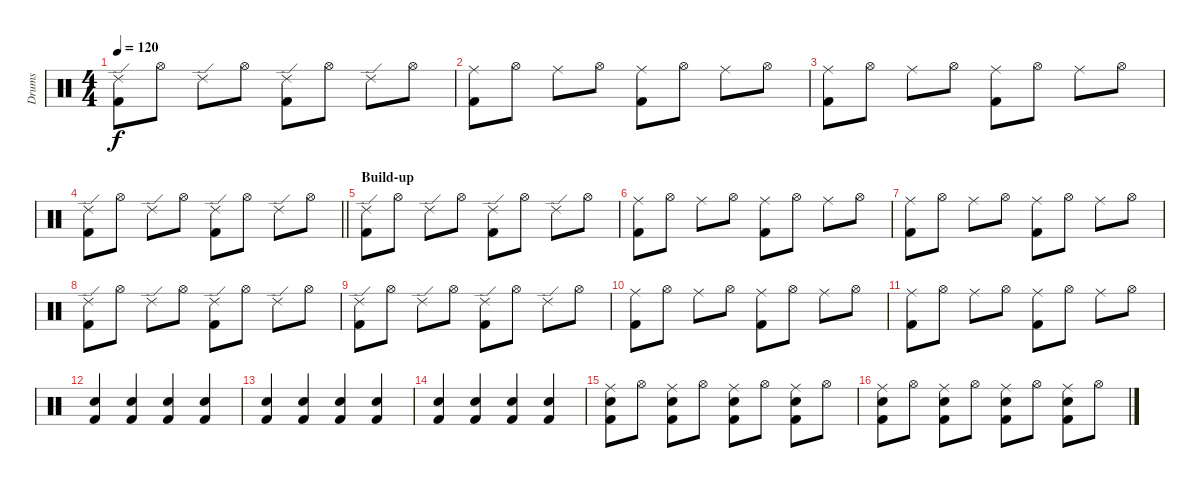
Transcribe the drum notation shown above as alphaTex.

\track ("Drums" "Drums") {instrument percussion}
\staff {score}
\articulation defaults
\ts (4 4)
\tempo 120
\clef neutral
\ks c
("Ride (edge) 2" "Kick (hit) 2").8{dy f} "Hi-Hat (open)".8 "Ride (edge) 2".8 "Hi-Hat (open)".8 ("Ride (edge) 2" "Kick (hit) 2").8 "Hi-Hat (open)".8 "Ride (edge) 2".8 "Hi-Hat (open)".8 |
("Ride (middle)" "Kick (hit) 2").8 "Hi-Hat (open)".8 "Ride (middle)".8 "Hi-Hat (open)".8 ("Ride (middle)" "Kick (hit) 2").8 "Hi-Hat (open)".8 "Ride (middle)".8 "Hi-Hat (open)".8 |
("Ride (middle)" "Kick (hit) 2").8 "Hi-Hat (open)".8 "Ride (middle)".8 "Hi-Hat (open)".8 ("Ride (middle)" "Kick (hit) 2").8 "Hi-Hat (open)".8 "Ride (middle)".8 "Hi-Hat (open)".8 |
\barLineRight lightlight
("Ride (edge) 2" "Kick (hit) 2").8 "Hi-Hat (open)".8 "Ride (edge) 2".8 "Hi-Hat (open)".8 ("Ride (edge) 2" "Kick (hit) 2").8 "Hi-Hat (open)".8 "Ride (edge) 2".8 "Hi-Hat (open)".8 |
\section ("" "Build-up")
("Ride (edge) 2" "Kick (hit) 2").8 "Hi-Hat (open)".8 "Ride (edge) 2".8 "Hi-Hat (open)".8 ("Ride (edge) 2" "Kick (hit) 2").8 "Hi-Hat (open)".8 "Ride (edge) 2".8 "Hi-Hat (open)".8 |
("Ride (middle)" "Kick (hit) 2").8 "Hi-Hat (open)".8 "Ride (middle)".8 "Hi-Hat (open)".8 ("Ride (middle)" "Kick (hit) 2").8 "Hi-Hat (open)".8 "Ride (middle)".8 "Hi-Hat (open)".8 |
("Ride (middle)" "Kick (hit) 2").8 "Hi-Hat (open)".8 "Ride (middle)".8 "Hi-Hat (open)".8 ("Ride (middle)" "Kick (hit) 2").8 "Hi-Hat (open)".8 "Ride (middle)".8 "Hi-Hat (open)".8 |
("Ride (edge) 2" "Kick (hit) 2").8 "Hi-Hat (open)".8 "Ride (edge) 2".8 "Hi-Hat (open)".8 ("Ride (edge) 2" "Kick (hit) 2").8 "Hi-Hat (open)".8 "Ride (edge) 2".8 "Hi-Hat (open)".8 |
("Ride (edge) 2" "Kick (hit) 2").8 "Hi-Hat (open)".8 "Ride (edge) 2".8 "Hi-Hat (open)".8 ("Ride (edge) 2" "Kick (hit) 2").8 "Hi-Hat (open)".8 "Ride (edge) 2".8 "Hi-Hat (open)".8 |
("Ride (middle)" "Kick (hit) 2").8 "Hi-Hat (open)".8 "Ride (middle)".8 "Hi-Hat (open)".8 ("Ride (middle)" "Kick (hit) 2").8 "Hi-Hat (open)".8 "Ride (middle)".8 "Hi-Hat (open)".8 |
("Ride (middle)" "Kick (hit) 2").8 "Hi-Hat (open)".8 "Ride (middle)".8 "Hi-Hat (open)".8 ("Ride (middle)" "Kick (hit) 2").8 "Hi-Hat (open)".8 "Ride (middle)".8 "Hi-Hat (open)".8 |
("Electric Snare (hit)" "Kick (hit) 2").4 ("Electric Snare (hit)" "Kick (hit) 2").4 ("Electric Snare (hit)" "Kick (hit) 2").4 ("Electric Snare (hit)" "Kick (hit) 2").4 |
("Electric Snare (hit)" "Kick (hit) 2").4 ("Electric Snare (hit)" "Kick (hit) 2").4 ("Electric Snare (hit)" "Kick (hit) 2").4 ("Electric Snare (hit)" "Kick (hit) 2").4 |
("Electric Snare (hit)" "Kick (hit) 2").4 ("Electric Snare (hit)" "Kick (hit) 2").4 ("Electric Snare (hit)" "Kick (hit) 2").4 ("Electric Snare (hit)" "Kick (hit) 2").4 |
("Ride (middle)" "Electric Snare (hit)" "Kick (hit) 2").8 "Hi-Hat (open)".8 ("Ride (middle)" "Electric Snare (hit)" "Kick (hit) 2").8 "Hi-Hat (open)".8 ("Ride (middle)" "Electric Snare (hit)" "Kick (hit) 2").8 "Hi-Hat (open)".8 ("Ride (middle)" "Electric Snare (hit)" "Kick (hit) 2").8 "Hi-Hat (open)".8 |
("Ride (middle)" "Electric Snare (hit)" "Kick (hit) 2").8 "Hi-Hat (open)".8 ("Ride (middle)" "Electric Snare (hit)" "Kick (hit) 2").8 "Hi-Hat (open)".8 ("Ride (middle)" "Electric Snare (hit)" "Kick (hit) 2").8 "Hi-Hat (open)".8 ("Ride (middle)" "Electric Snare (hit)" "Kick (hit) 2").8 "Hi-Hat (open)".8
